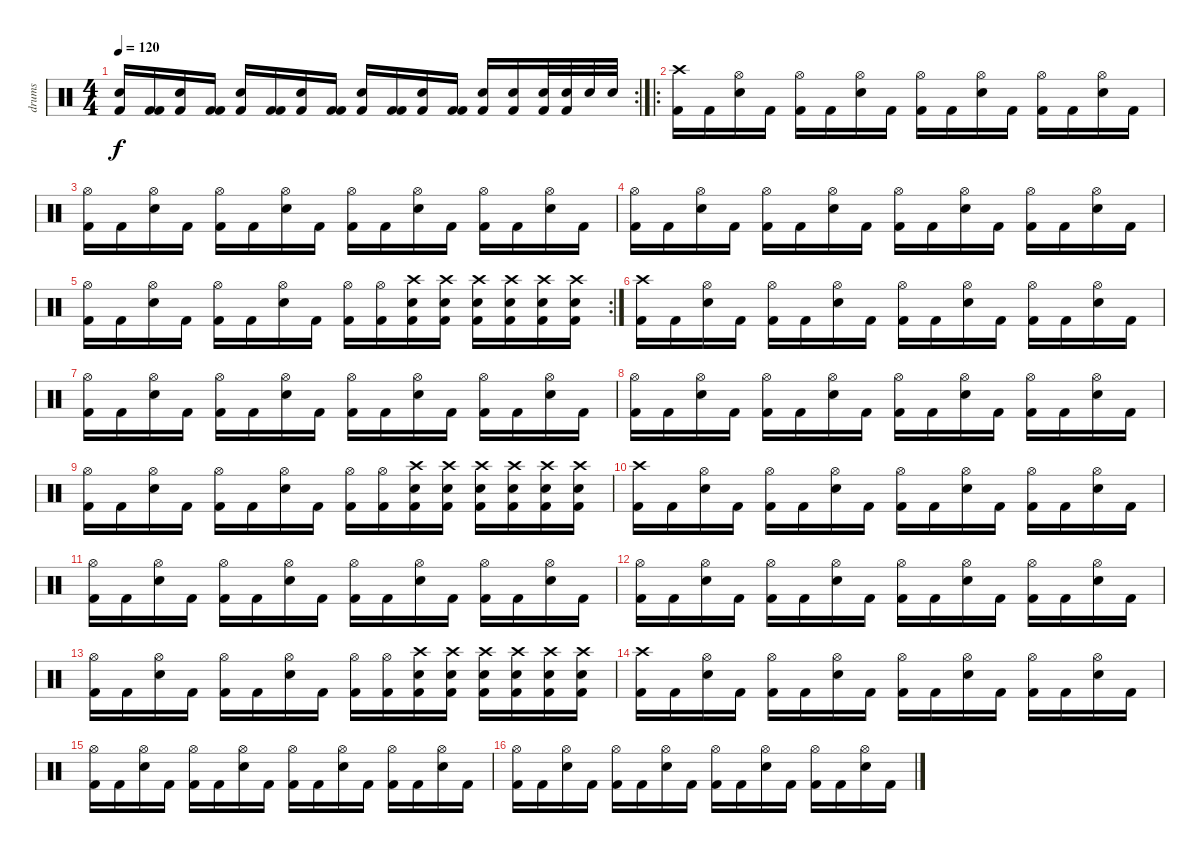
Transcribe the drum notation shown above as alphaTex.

\track ("drums" "drums") {instrument percussion}
\staff {score}
\articulation defaults
\rc 2
\ts (4 4)
\tempo 120
\clef neutral
\ks c
("Kick (hit) 2" "Electric Snare (hit)").16{dy f} ("Kick (hit) 2" "Kick (hit) 2").16 ("Kick (hit) 2" "Electric Snare (hit)").16 ("Kick (hit) 2" "Kick (hit) 2").16 ("Kick (hit) 2" "Electric Snare (hit)").16 ("Kick (hit) 2" "Kick (hit) 2").16 ("Kick (hit) 2" "Electric Snare (hit)").16 ("Kick (hit) 2" "Kick (hit) 2").16 ("Kick (hit) 2" "Electric Snare (hit)").16 ("Kick (hit) 2" "Kick (hit) 2").16 ("Kick (hit) 2" "Electric Snare (hit)").16 ("Kick (hit) 2" "Kick (hit) 2").16 ("Kick (hit) 2" "Electric Snare (hit)").16 ("Kick (hit) 2" "Electric Snare (hit)").16 ("Kick (hit) 2" "Electric Snare (hit)").32 ("Kick (hit) 2" "Electric Snare (hit)").32 "Electric Snare (hit)".32 "Electric Snare (hit)".32 |
\ro
("Crash high (hit)" "Kick (hit) 2").16 "Kick (hit) 2".16 ("Hi-Hat (open)" "Electric Snare (hit)").16 "Kick (hit) 2".16 ("Hi-Hat (open)" "Kick (hit) 2").16 "Kick (hit) 2".16 ("Hi-Hat (open)" "Electric Snare (hit)").16 "Kick (hit) 2".16 ("Hi-Hat (open)" "Kick (hit) 2").16 "Kick (hit) 2".16 ("Hi-Hat (open)" "Electric Snare (hit)").16 "Kick (hit) 2".16 ("Hi-Hat (open)" "Kick (hit) 2").16 "Kick (hit) 2".16 ("Hi-Hat (open)" "Electric Snare (hit)").16 "Kick (hit) 2".16 |
("Hi-Hat (open)" "Kick (hit) 2").16 "Kick (hit) 2".16 ("Hi-Hat (open)" "Electric Snare (hit)").16 "Kick (hit) 2".16 ("Hi-Hat (open)" "Kick (hit) 2").16 "Kick (hit) 2".16 ("Hi-Hat (open)" "Electric Snare (hit)").16 "Kick (hit) 2".16 ("Hi-Hat (open)" "Kick (hit) 2").16 "Kick (hit) 2".16 ("Hi-Hat (open)" "Electric Snare (hit)").16 "Kick (hit) 2".16 ("Hi-Hat (open)" "Kick (hit) 2").16 "Kick (hit) 2".16 ("Hi-Hat (open)" "Electric Snare (hit)").16 "Kick (hit) 2".16 |
("Hi-Hat (open)" "Kick (hit) 2").16 "Kick (hit) 2".16 ("Hi-Hat (open)" "Electric Snare (hit)").16 "Kick (hit) 2".16 ("Hi-Hat (open)" "Kick (hit) 2").16 "Kick (hit) 2".16 ("Hi-Hat (open)" "Electric Snare (hit)").16 "Kick (hit) 2".16 ("Hi-Hat (open)" "Kick (hit) 2").16 "Kick (hit) 2".16 ("Hi-Hat (open)" "Electric Snare (hit)").16 "Kick (hit) 2".16 ("Hi-Hat (open)" "Kick (hit) 2").16 "Kick (hit) 2".16 ("Hi-Hat (open)" "Electric Snare (hit)").16 "Kick (hit) 2".16 |
\rc 2
("Hi-Hat (open)" "Kick (hit) 2").16 "Kick (hit) 2".16 ("Hi-Hat (open)" "Electric Snare (hit)").16 "Kick (hit) 2".16 ("Hi-Hat (open)" "Kick (hit) 2").16 "Kick (hit) 2".16 ("Hi-Hat (open)" "Electric Snare (hit)").16 "Kick (hit) 2".16 ("Hi-Hat (open)" "Kick (hit) 2").16 ("Hi-Hat (open)" "Kick (hit) 2").16 ("Crash high (hit)" "Kick (hit) 2" "Electric Snare (hit)").16 ("Crash high (hit)" "Kick (hit) 2" "Electric Snare (hit)").16 ("Crash high (hit)" "Kick (hit) 2" "Electric Snare (hit)").16 ("Crash high (hit)" "Kick (hit) 2" "Electric Snare (hit)").16 ("Crash high (hit)" "Kick (hit) 2" "Electric Snare (hit)").16 ("Crash high (hit)" "Kick (hit) 2" "Electric Snare (hit)").16 |
("Crash high (hit)" "Kick (hit) 2").16 "Kick (hit) 2".16 ("Hi-Hat (open)" "Electric Snare (hit)").16 "Kick (hit) 2".16 ("Hi-Hat (open)" "Kick (hit) 2").16 "Kick (hit) 2".16 ("Hi-Hat (open)" "Electric Snare (hit)").16 "Kick (hit) 2".16 ("Hi-Hat (open)" "Kick (hit) 2").16 "Kick (hit) 2".16 ("Hi-Hat (open)" "Electric Snare (hit)").16 "Kick (hit) 2".16 ("Hi-Hat (open)" "Kick (hit) 2").16 "Kick (hit) 2".16 ("Hi-Hat (open)" "Electric Snare (hit)").16 "Kick (hit) 2".16 |
("Hi-Hat (open)" "Kick (hit) 2").16 "Kick (hit) 2".16 ("Hi-Hat (open)" "Electric Snare (hit)").16 "Kick (hit) 2".16 ("Hi-Hat (open)" "Kick (hit) 2").16 "Kick (hit) 2".16 ("Hi-Hat (open)" "Electric Snare (hit)").16 "Kick (hit) 2".16 ("Hi-Hat (open)" "Kick (hit) 2").16 "Kick (hit) 2".16 ("Hi-Hat (open)" "Electric Snare (hit)").16 "Kick (hit) 2".16 ("Hi-Hat (open)" "Kick (hit) 2").16 "Kick (hit) 2".16 ("Hi-Hat (open)" "Electric Snare (hit)").16 "Kick (hit) 2".16 |
("Hi-Hat (open)" "Kick (hit) 2").16 "Kick (hit) 2".16 ("Hi-Hat (open)" "Electric Snare (hit)").16 "Kick (hit) 2".16 ("Hi-Hat (open)" "Kick (hit) 2").16 "Kick (hit) 2".16 ("Hi-Hat (open)" "Electric Snare (hit)").16 "Kick (hit) 2".16 ("Hi-Hat (open)" "Kick (hit) 2").16 "Kick (hit) 2".16 ("Hi-Hat (open)" "Electric Snare (hit)").16 "Kick (hit) 2".16 ("Hi-Hat (open)" "Kick (hit) 2").16 "Kick (hit) 2".16 ("Hi-Hat (open)" "Electric Snare (hit)").16 "Kick (hit) 2".16 |
("Hi-Hat (open)" "Kick (hit) 2").16 "Kick (hit) 2".16 ("Hi-Hat (open)" "Electric Snare (hit)").16 "Kick (hit) 2".16 ("Hi-Hat (open)" "Kick (hit) 2").16 "Kick (hit) 2".16 ("Hi-Hat (open)" "Electric Snare (hit)").16 "Kick (hit) 2".16 ("Hi-Hat (open)" "Kick (hit) 2").16 ("Hi-Hat (open)" "Kick (hit) 2").16 ("Crash high (hit)" "Kick (hit) 2" "Electric Snare (hit)").16 ("Crash high (hit)" "Kick (hit) 2" "Electric Snare (hit)").16 ("Crash high (hit)" "Kick (hit) 2" "Electric Snare (hit)").16 ("Crash high (hit)" "Kick (hit) 2" "Electric Snare (hit)").16 ("Crash high (hit)" "Kick (hit) 2" "Electric Snare (hit)").16 ("Crash high (hit)" "Kick (hit) 2" "Electric Snare (hit)").16 |
("Crash high (hit)" "Kick (hit) 2").16 "Kick (hit) 2".16 ("Hi-Hat (open)" "Electric Snare (hit)").16 "Kick (hit) 2".16 ("Hi-Hat (open)" "Kick (hit) 2").16 "Kick (hit) 2".16 ("Hi-Hat (open)" "Electric Snare (hit)").16 "Kick (hit) 2".16 ("Hi-Hat (open)" "Kick (hit) 2").16 "Kick (hit) 2".16 ("Hi-Hat (open)" "Electric Snare (hit)").16 "Kick (hit) 2".16 ("Hi-Hat (open)" "Kick (hit) 2").16 "Kick (hit) 2".16 ("Hi-Hat (open)" "Electric Snare (hit)").16 "Kick (hit) 2".16 |
("Hi-Hat (open)" "Kick (hit) 2").16 "Kick (hit) 2".16 ("Hi-Hat (open)" "Electric Snare (hit)").16 "Kick (hit) 2".16 ("Hi-Hat (open)" "Kick (hit) 2").16 "Kick (hit) 2".16 ("Hi-Hat (open)" "Electric Snare (hit)").16 "Kick (hit) 2".16 ("Hi-Hat (open)" "Kick (hit) 2").16 "Kick (hit) 2".16 ("Hi-Hat (open)" "Electric Snare (hit)").16 "Kick (hit) 2".16 ("Hi-Hat (open)" "Kick (hit) 2").16 "Kick (hit) 2".16 ("Hi-Hat (open)" "Electric Snare (hit)").16 "Kick (hit) 2".16 |
("Hi-Hat (open)" "Kick (hit) 2").16 "Kick (hit) 2".16 ("Hi-Hat (open)" "Electric Snare (hit)").16 "Kick (hit) 2".16 ("Hi-Hat (open)" "Kick (hit) 2").16 "Kick (hit) 2".16 ("Hi-Hat (open)" "Electric Snare (hit)").16 "Kick (hit) 2".16 ("Hi-Hat (open)" "Kick (hit) 2").16 "Kick (hit) 2".16 ("Hi-Hat (open)" "Electric Snare (hit)").16 "Kick (hit) 2".16 ("Hi-Hat (open)" "Kick (hit) 2").16 "Kick (hit) 2".16 ("Hi-Hat (open)" "Electric Snare (hit)").16 "Kick (hit) 2".16 |
("Hi-Hat (open)" "Kick (hit) 2").16 "Kick (hit) 2".16 ("Hi-Hat (open)" "Electric Snare (hit)").16 "Kick (hit) 2".16 ("Hi-Hat (open)" "Kick (hit) 2").16 "Kick (hit) 2".16 ("Hi-Hat (open)" "Electric Snare (hit)").16 "Kick (hit) 2".16 ("Hi-Hat (open)" "Kick (hit) 2").16 ("Hi-Hat (open)" "Kick (hit) 2").16 ("Crash high (hit)" "Kick (hit) 2" "Electric Snare (hit)").16 ("Crash high (hit)" "Kick (hit) 2" "Electric Snare (hit)").16 ("Crash high (hit)" "Kick (hit) 2" "Electric Snare (hit)").16 ("Crash high (hit)" "Kick (hit) 2" "Electric Snare (hit)").16 ("Crash high (hit)" "Kick (hit) 2" "Electric Snare (hit)").16 ("Crash high (hit)" "Kick (hit) 2" "Electric Snare (hit)").16 |
("Crash high (hit)" "Kick (hit) 2").16 "Kick (hit) 2".16 ("Hi-Hat (open)" "Electric Snare (hit)").16 "Kick (hit) 2".16 ("Hi-Hat (open)" "Kick (hit) 2").16 "Kick (hit) 2".16 ("Hi-Hat (open)" "Electric Snare (hit)").16 "Kick (hit) 2".16 ("Hi-Hat (open)" "Kick (hit) 2").16 "Kick (hit) 2".16 ("Hi-Hat (open)" "Electric Snare (hit)").16 "Kick (hit) 2".16 ("Hi-Hat (open)" "Kick (hit) 2").16 "Kick (hit) 2".16 ("Hi-Hat (open)" "Electric Snare (hit)").16 "Kick (hit) 2".16 |
("Hi-Hat (open)" "Kick (hit) 2").16 "Kick (hit) 2".16 ("Hi-Hat (open)" "Electric Snare (hit)").16 "Kick (hit) 2".16 ("Hi-Hat (open)" "Kick (hit) 2").16 "Kick (hit) 2".16 ("Hi-Hat (open)" "Electric Snare (hit)").16 "Kick (hit) 2".16 ("Hi-Hat (open)" "Kick (hit) 2").16 "Kick (hit) 2".16 ("Hi-Hat (open)" "Electric Snare (hit)").16 "Kick (hit) 2".16 ("Hi-Hat (open)" "Kick (hit) 2").16 "Kick (hit) 2".16 ("Hi-Hat (open)" "Electric Snare (hit)").16 "Kick (hit) 2".16 |
("Hi-Hat (open)" "Kick (hit) 2").16 "Kick (hit) 2".16 ("Hi-Hat (open)" "Electric Snare (hit)").16 "Kick (hit) 2".16 ("Hi-Hat (open)" "Kick (hit) 2").16 "Kick (hit) 2".16 ("Hi-Hat (open)" "Electric Snare (hit)").16 "Kick (hit) 2".16 ("Hi-Hat (open)" "Kick (hit) 2").16 "Kick (hit) 2".16 ("Hi-Hat (open)" "Electric Snare (hit)").16 "Kick (hit) 2".16 ("Hi-Hat (open)" "Kick (hit) 2").16 "Kick (hit) 2".16 ("Hi-Hat (open)" "Electric Snare (hit)").16 "Kick (hit) 2".16
